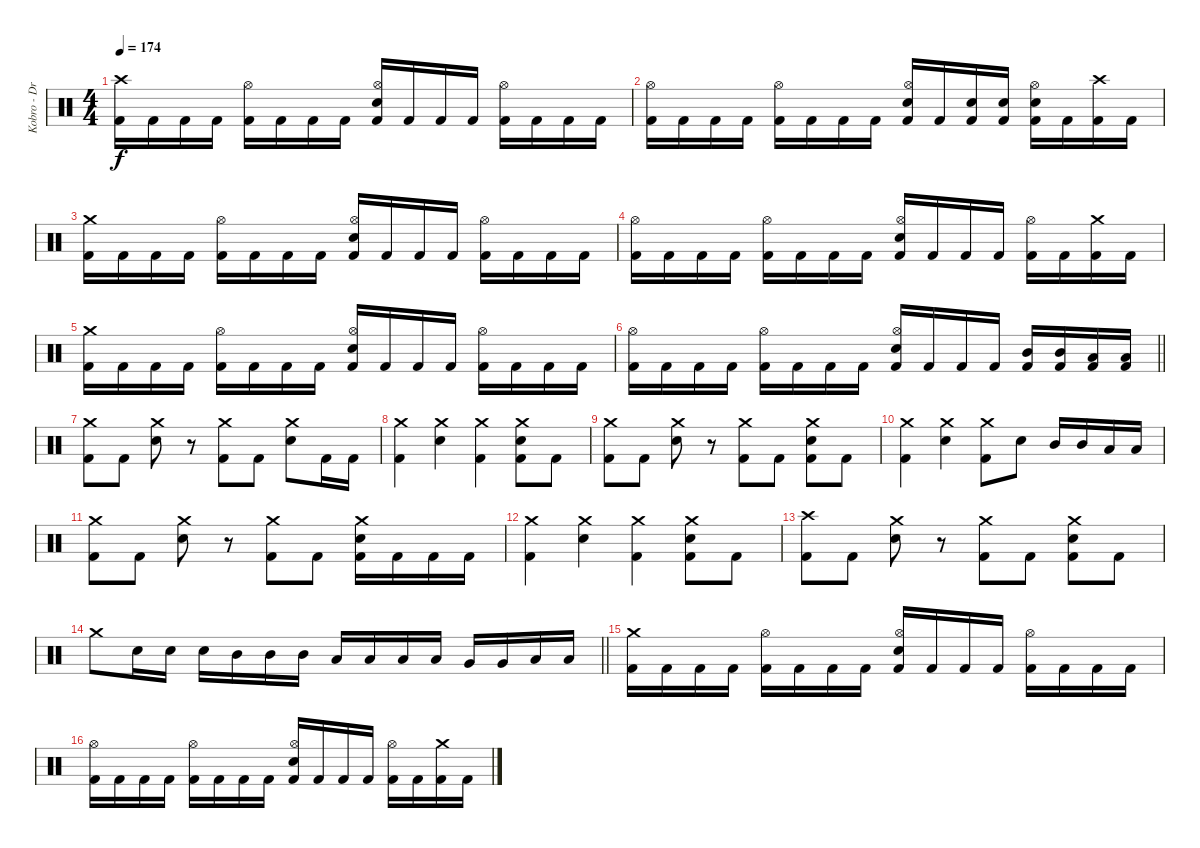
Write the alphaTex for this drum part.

\track ("Kobro - Drums + Percussion" "Kobro - Dr") {instrument percussion}
\staff {score}
\articulation defaults
\ts (4 4)
\tempo 174
\clef neutral
\ks c
("Crash high (hit)" "Kick (hit) 2").16{dy f} "Kick (hit) 2".16 "Kick (hit) 2".16 "Kick (hit) 2".16 ("Hi-Hat (open)" "Kick (hit) 2").16 "Kick (hit) 2".16 "Kick (hit) 2".16 "Kick (hit) 2".16 ("Hi-Hat (open)" "Electric Snare (hit)" "Kick (hit) 2").16 "Kick (hit) 2".16 "Kick (hit) 2".16 "Kick (hit) 2".16 ("Hi-Hat (open)" "Kick (hit) 2").16 "Kick (hit) 2".16 "Kick (hit) 2".16 "Kick (hit) 2".16 |
("Hi-Hat (open)" "Kick (hit) 2").16 "Kick (hit) 2".16 "Kick (hit) 2".16 "Kick (hit) 2".16 ("Hi-Hat (open)" "Kick (hit) 2").16 "Kick (hit) 2".16 "Kick (hit) 2".16 "Kick (hit) 2".16 ("Hi-Hat (open)" "Electric Snare (hit)" "Kick (hit) 2").16 "Kick (hit) 2".16 ("Electric Snare (hit)" "Kick (hit) 2").16 ("Electric Snare (hit)" "Kick (hit) 2").16 ("Hi-Hat (open)" "Electric Snare (hit)" "Kick (hit) 2").16 "Kick (hit) 2".16 ("Crash high (hit)" "Kick (hit) 2").16 "Kick (hit) 2".16 |
("Crash medium (hit)" "Kick (hit) 2").16 "Kick (hit) 2".16 "Kick (hit) 2".16 "Kick (hit) 2".16 ("Hi-Hat (open)" "Kick (hit) 2").16 "Kick (hit) 2".16 "Kick (hit) 2".16 "Kick (hit) 2".16 ("Hi-Hat (open)" "Electric Snare (hit)" "Kick (hit) 2").16 "Kick (hit) 2".16 "Kick (hit) 2".16 "Kick (hit) 2".16 ("Hi-Hat (open)" "Kick (hit) 2").16 "Kick (hit) 2".16 "Kick (hit) 2".16 "Kick (hit) 2".16 |
("Hi-Hat (open)" "Kick (hit) 2").16 "Kick (hit) 2".16 "Kick (hit) 2".16 "Kick (hit) 2".16 ("Hi-Hat (open)" "Kick (hit) 2").16 "Kick (hit) 2".16 "Kick (hit) 2".16 "Kick (hit) 2".16 ("Hi-Hat (open)" "Electric Snare (hit)" "Kick (hit) 2").16 "Kick (hit) 2".16 "Kick (hit) 2".16 "Kick (hit) 2".16 ("Hi-Hat (open)" "Kick (hit) 2").16 "Kick (hit) 2".16 ("Crash medium (hit)" "Kick (hit) 2").16 "Kick (hit) 2".16 |
("Crash medium (hit)" "Kick (hit) 2").16 "Kick (hit) 2".16 "Kick (hit) 2".16 "Kick (hit) 2".16 ("Hi-Hat (open)" "Kick (hit) 2").16 "Kick (hit) 2".16 "Kick (hit) 2".16 "Kick (hit) 2".16 ("Hi-Hat (open)" "Electric Snare (hit)" "Kick (hit) 2").16 "Kick (hit) 2".16 "Kick (hit) 2".16 "Kick (hit) 2".16 ("Hi-Hat (open)" "Kick (hit) 2").16 "Kick (hit) 2".16 "Kick (hit) 2".16 "Kick (hit) 2".16 |
\barLineRight lightlight
("Hi-Hat (open)" "Kick (hit) 2").16 "Kick (hit) 2".16 "Kick (hit) 2".16 "Kick (hit) 2".16 ("Hi-Hat (open)" "Kick (hit) 2").16 "Kick (hit) 2".16 "Kick (hit) 2".16 "Kick (hit) 2".16 ("Hi-Hat (open)" "Electric Snare (hit)" "Kick (hit) 2").16 "Kick (hit) 2".16 "Kick (hit) 2".16 "Kick (hit) 2".16 ("Mid Tom (hit)" "Kick (hit) 2").16 ("Mid Tom (hit)" "Kick (hit) 2").16 ("Low Tom (hit)" "Kick (hit) 2").16 ("Low Tom (hit)" "Kick (hit) 2").16 |
("Crash medium (hit)" "Kick (hit) 2").8 "Kick (hit) 2".8 ("Crash medium (hit)" "Electric Snare (hit)").8 r.8 ("Crash medium (hit)" "Kick (hit) 2").8 "Kick (hit) 2".8 ("Crash medium (hit)" "Electric Snare (hit)").8 "Kick (hit) 2".16 "Kick (hit) 2".16 |
("Crash medium (hit)" "Kick (hit) 2").4 ("Crash medium (hit)" "Electric Snare (hit)").4 ("Crash medium (hit)" "Kick (hit) 2").4 ("Crash medium (hit)" "Electric Snare (hit)" "Kick (hit) 2").8 "Kick (hit) 2".8 |
("Crash medium (hit)" "Kick (hit) 2").8 "Kick (hit) 2".8 ("Crash medium (hit)" "Electric Snare (hit)").8 r.8 ("Crash medium (hit)" "Kick (hit) 2").8 "Kick (hit) 2".8 ("Crash medium (hit)" "Electric Snare (hit)" "Kick (hit) 2").8 "Kick (hit) 2".8 |
("Crash medium (hit)" "Kick (hit) 2").4 ("Crash medium (hit)" "Electric Snare (hit)").4 ("Crash medium (hit)" "Kick (hit) 2").8 "Electric Snare (hit)".8 "Mid Tom (hit)".16 "Mid Tom (hit)".16 "Low Tom (hit)".16 "Low Tom (hit)".16 |
("Crash medium (hit)" "Kick (hit) 2").8 "Kick (hit) 2".8 ("Crash medium (hit)" "Electric Snare (hit)").8 r.8 ("Crash medium (hit)" "Kick (hit) 2").8 "Kick (hit) 2".8 ("Crash medium (hit)" "Electric Snare (hit)" "Kick (hit) 2").16 "Kick (hit) 2".16 "Kick (hit) 2".16 "Kick (hit) 2".16 |
("Crash medium (hit)" "Kick (hit) 2").4 ("Crash medium (hit)" "Electric Snare (hit)").4 ("Crash medium (hit)" "Kick (hit) 2").4 ("Crash medium (hit)" "Electric Snare (hit)" "Kick (hit) 2").8 "Kick (hit) 2".8 |
("Crash high (hit)" "Kick (hit) 2").8 "Kick (hit) 2".8 ("Crash medium (hit)" "Electric Snare (hit)").8 r.8 ("Crash medium (hit)" "Kick (hit) 2").8 "Kick (hit) 2".8 ("Crash medium (hit)" "Electric Snare (hit)" "Kick (hit) 2").8 "Kick (hit) 2".8 |
\barLineRight lightlight "Crash medium (hit)".8 "Electric Snare (hit)".16 "Electric Snare (hit)".16 "Electric Snare (hit)".16 "Mid Tom (hit)".16 "Mid Tom (hit)".16 "Mid Tom (hit)".16 "Low Tom (hit)".16 "Low Tom (hit)".16 "Low Tom (hit)".16 "Low Tom (hit)".16 "Very Low Tom (hit)".16 "Very Low Tom (hit)".16 "Low Floor Tom (hit)".16 "Low Floor Tom (hit)".16
|
("Crash medium (hit)" "Kick (hit) 2").16 "Kick (hit) 2".16 "Kick (hit) 2".16 "Kick (hit) 2".16 ("Hi-Hat (open)" "Kick (hit) 2").16 "Kick (hit) 2".16 "Kick (hit) 2".16 "Kick (hit) 2".16 ("Hi-Hat (open)" "Electric Snare (hit)" "Kick (hit) 2").16 "Kick (hit) 2".16 "Kick (hit) 2".16 "Kick (hit) 2".16 ("Hi-Hat (open)" "Kick (hit) 2").16 "Kick (hit) 2".16 "Kick (hit) 2".16 "Kick (hit) 2".16 |
("Hi-Hat (open)" "Kick (hit) 2").16 "Kick (hit) 2".16 "Kick (hit) 2".16 "Kick (hit) 2".16 ("Hi-Hat (open)" "Kick (hit) 2").16 "Kick (hit) 2".16 "Kick (hit) 2".16 "Kick (hit) 2".16 ("Hi-Hat (open)" "Electric Snare (hit)" "Kick (hit) 2").16 "Kick (hit) 2".16 "Kick (hit) 2".16 "Kick (hit) 2".16 ("Hi-Hat (open)" "Kick (hit) 2").16 "Kick (hit) 2".16 ("Crash medium (hit)" "Kick (hit) 2").16 "Kick (hit) 2".16
